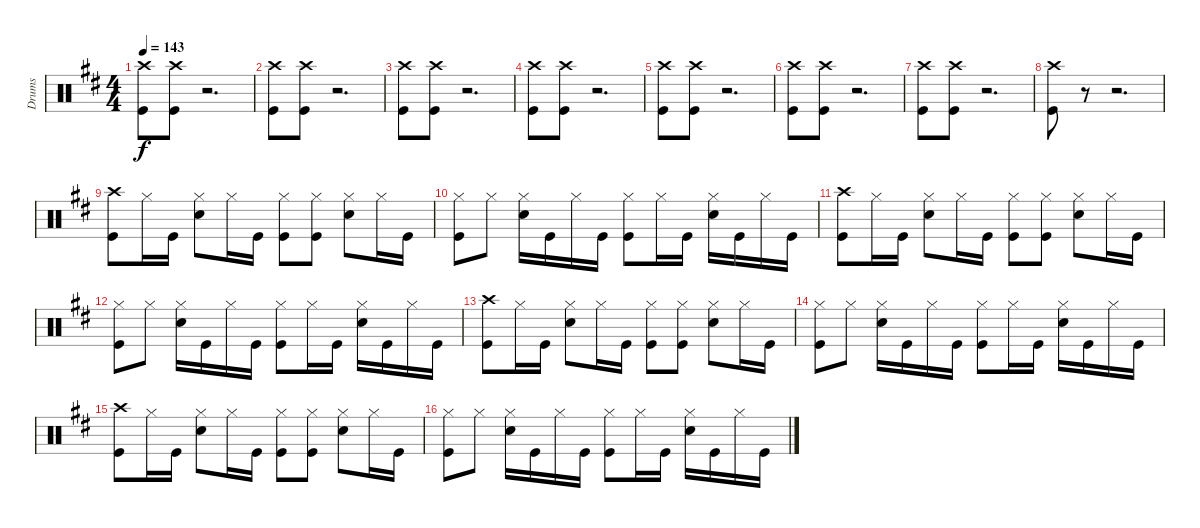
\track ("Drums" "Drums") {instrument percussion}
\staff {score}
\articulation defaults
\ts (4 4)
\tempo 143
\clef neutral
\ks bminor
("Crash high (hit)" "Kick (hit)").8{dy f} ("Crash high (hit)" "Kick (hit)").8 r.2{d} |
("Crash high (hit)" "Kick (hit)").8 ("Crash high (hit)" "Kick (hit)").8 r.2{d} |
("Crash high (hit)" "Kick (hit)").8 ("Crash high (hit)" "Kick (hit)").8 r.2{d} |
("Crash high (hit)" "Kick (hit)").8 ("Crash high (hit)" "Kick (hit)").8 r.2{d} |
("Crash high (hit)" "Kick (hit)").8 ("Crash high (hit)" "Kick (hit)").8 r.2{d} |
("Crash high (hit)" "Kick (hit)").8 ("Crash high (hit)" "Kick (hit)").8 r.2{d} |
("Crash high (hit)" "Kick (hit)").8 ("Crash high (hit)" "Kick (hit)").8 r.2{d} |
("Crash high (hit)" "Kick (hit)").8 r.8 r.2{d} |
("Crash high (hit)" "Kick (hit)").8 "Hi-Hat (closed)".16 "Kick (hit)".16 ("Hi-Hat (closed)" "Snare (hit) 2").8 "Hi-Hat (closed)".16 "Kick (hit)".16 ("Hi-Hat (closed)" "Kick (hit)").8 ("Hi-Hat (closed)" "Kick (hit)").8 ("Hi-Hat (closed)" "Snare (hit) 2").8 "Hi-Hat (closed)".16 "Kick (hit)".16 |
("Hi-Hat (closed)" "Kick (hit)").8 "Hi-Hat (closed)".8 ("Hi-Hat (closed)" "Snare (hit) 2").16 "Kick (hit)".16 "Hi-Hat (closed)".16 "Kick (hit)".16 ("Hi-Hat (closed)" "Kick (hit)").8 "Hi-Hat (closed)".16 "Kick (hit)".16 ("Hi-Hat (closed)" "Snare (hit) 2").16 "Kick (hit)".16 "Hi-Hat (closed)".16 "Kick (hit)".16 |
("Crash high (hit)" "Kick (hit)").8 "Hi-Hat (closed)".16 "Kick (hit)".16 ("Hi-Hat (closed)" "Snare (hit) 2").8 "Hi-Hat (closed)".16 "Kick (hit)".16 ("Hi-Hat (closed)" "Kick (hit)").8 ("Hi-Hat (closed)" "Kick (hit)").8 ("Hi-Hat (closed)" "Snare (hit) 2").8 "Hi-Hat (closed)".16 "Kick (hit)".16 |
("Hi-Hat (closed)" "Kick (hit)").8 "Hi-Hat (closed)".8 ("Hi-Hat (closed)" "Snare (hit) 2").16 "Kick (hit)".16 "Hi-Hat (closed)".16 "Kick (hit)".16 ("Hi-Hat (closed)" "Kick (hit)").8 "Hi-Hat (closed)".16 "Kick (hit)".16 ("Hi-Hat (closed)" "Snare (hit) 2").16 "Kick (hit)".16 "Hi-Hat (closed)".16 "Kick (hit)".16 |
("Crash high (hit)" "Kick (hit)").8 "Hi-Hat (closed)".16 "Kick (hit)".16 ("Hi-Hat (closed)" "Snare (hit) 2").8 "Hi-Hat (closed)".16 "Kick (hit)".16 ("Hi-Hat (closed)" "Kick (hit)").8 ("Hi-Hat (closed)" "Kick (hit)").8 ("Hi-Hat (closed)" "Snare (hit) 2").8 "Hi-Hat (closed)".16 "Kick (hit)".16 |
("Hi-Hat (closed)" "Kick (hit)").8 "Hi-Hat (closed)".8 ("Hi-Hat (closed)" "Snare (hit) 2").16 "Kick (hit)".16 "Hi-Hat (closed)".16 "Kick (hit)".16 ("Hi-Hat (closed)" "Kick (hit)").8 "Hi-Hat (closed)".16 "Kick (hit)".16 ("Hi-Hat (closed)" "Snare (hit) 2").16 "Kick (hit)".16 "Hi-Hat (closed)".16 "Kick (hit)".16 |
("Crash high (hit)" "Kick (hit)").8 "Hi-Hat (closed)".16 "Kick (hit)".16 ("Hi-Hat (closed)" "Snare (hit) 2").8 "Hi-Hat (closed)".16 "Kick (hit)".16 ("Hi-Hat (closed)" "Kick (hit)").8 ("Hi-Hat (closed)" "Kick (hit)").8 ("Hi-Hat (closed)" "Snare (hit) 2").8 "Hi-Hat (closed)".16 "Kick (hit)".16 |
("Hi-Hat (closed)" "Kick (hit)").8 "Hi-Hat (closed)".8 ("Hi-Hat (closed)" "Snare (hit) 2").16 "Kick (hit)".16 "Hi-Hat (closed)".16 "Kick (hit)".16 ("Hi-Hat (closed)" "Kick (hit)").8 "Hi-Hat (closed)".16 "Kick (hit)".16 ("Hi-Hat (closed)" "Snare (hit) 2").16 "Kick (hit)".16 "Hi-Hat (closed)".16 "Kick (hit)".16
